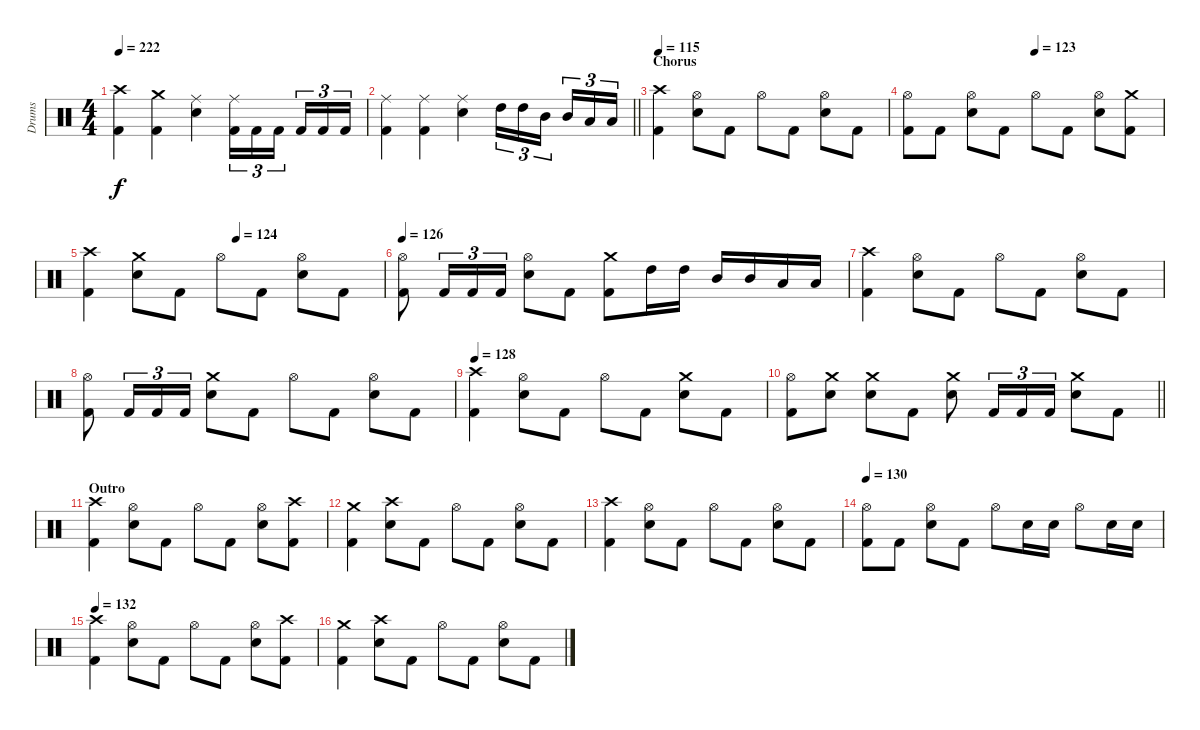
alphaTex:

\track ("Drums" "Drums") {instrument percussion}
\staff {score}
\articulation defaults
\ts (4 4)
\tempo 222
\clef neutral
\ks c
("Crash high (hit)" "Kick (hit) 2").4{dy f} ("Crash medium (hit)" "Kick (hit) 2").4 ("Ride (middle)" "Snare (hit) 2").4 ("Ride (middle)" "Kick (hit) 2").16{tu (3 2)} "Kick (hit) 2".16{tu (3 2)} "Kick (hit) 2".16{tu (3 2) beam splitsecondary} "Kick (hit) 2".16{tu (3 2)} "Kick (hit) 2".16{tu (3 2)} "Kick (hit) 2".16{tu (3 2)} |
\barLineRight lightlight
("Ride (middle)" "Kick (hit) 2").4 ("Ride (middle)" "Kick (hit) 2").4 ("Ride (middle)" "Snare (hit) 2").4 "High Tom (hit)".16{tu (3 2)} "High Tom (hit)".16{tu (3 2)} "Mid Tom (hit)".16{tu (3 2) beam splitsecondary} "Mid Tom (hit)".16{tu (3 2)} "Low Tom (hit)".16{tu (3 2)} "Low Tom (hit)".16{tu (3 2)} |
\section ("" "Chorus")
\tempo 115
("Crash high (hit)" "Kick (hit) 2").4 ("Hi-Hat (open)" "Snare (hit) 2").8 "Kick (hit) 2".8 "Hi-Hat (open)".8 "Kick (hit) 2".8 ("Hi-Hat (open)" "Snare (hit) 2").8 "Kick (hit) 2".8 |
\tempo (123 0.5)
("Hi-Hat (open)" "Kick (hit) 2").8 "Kick (hit) 2".8 ("Hi-Hat (open)" "Snare (hit) 2").8 "Kick (hit) 2".8 "Hi-Hat (open)".8 "Kick (hit) 2".8 ("Hi-Hat (open)" "Snare (hit) 2").8 ("Crash medium (hit)" "Kick (hit) 2").8 |
\tempo (124 0.5)
("Crash high (hit)" "Kick (hit) 2").4 ("Crash medium (hit)" "Snare (hit) 2").8 "Kick (hit) 2".8 "Hi-Hat (open)".8 "Kick (hit) 2".8 ("Hi-Hat (open)" "Snare (hit) 2").8 "Kick (hit) 2".8 |
\tempo 126
("Hi-Hat (open)" "Kick (hit) 2").8 "Kick (hit) 2".16{tu (3 2)} "Kick (hit) 2".16{tu (3 2)} "Kick (hit) 2".16{tu (3 2)} ("Hi-Hat (open)" "Snare (hit) 2").8 "Kick (hit) 2".8 ("Crash medium (hit)" "Kick (hit) 2").8 "High Tom (hit)".16 "High Tom (hit)".16 "Mid Tom (hit)".16 "Mid Tom (hit)".16 "Low Tom (hit)".16 "Low Tom (hit)".16 |
("Crash high (hit)" "Kick (hit) 2").4 ("Hi-Hat (open)" "Snare (hit) 2").8 "Kick (hit) 2".8 "Hi-Hat (open)".8 "Kick (hit) 2".8 ("Hi-Hat (open)" "Snare (hit) 2").8 "Kick (hit) 2".8 |
("Hi-Hat (open)" "Kick (hit) 2").8 "Kick (hit) 2".16{tu (3 2)} "Kick (hit) 2".16{tu (3 2)} "Kick (hit) 2".16{tu (3 2)} ("Crash medium (hit)" "Snare (hit) 2").8 "Kick (hit) 2".8 "Hi-Hat (open)".8 "Kick (hit) 2".8 ("Hi-Hat (open)" "Snare (hit) 2").8 "Kick (hit) 2".8 |
\tempo 128
("Crash high (hit)" "Kick (hit) 2").4 ("Hi-Hat (open)" "Snare (hit) 2").8 "Kick (hit) 2".8 "Hi-Hat (open)".8 "Kick (hit) 2".8 ("Crash medium (hit)" "Snare (hit) 2").8 "Kick (hit) 2".8 |
\barLineRight lightlight
("Hi-Hat (open)" "Kick (hit) 2").8 ("Crash medium (hit)" "Snare (hit) 2").8 ("Crash medium (hit)" "Snare (hit) 2").8 "Kick (hit) 2".8 ("Crash medium (hit)" "Snare (hit) 2").8 "Kick (hit) 2".16{tu (3 2)} "Kick (hit) 2".16{tu (3 2)} "Kick (hit) 2".16{tu (3 2)} ("Crash medium (hit)" "Snare (hit) 2").8 "Kick (hit) 2".8 |
\section ("" "Outro")
("Crash high (hit)" "Kick (hit) 2").4 ("Hi-Hat (open)" "Snare (hit) 2").8 "Kick (hit) 2".8 "Hi-Hat (open)".8 "Kick (hit) 2".8 ("Hi-Hat (open)" "Snare (hit) 2").8 ("Crash high (hit)" "Kick (hit) 2").8 |
("Crash medium (hit)" "Kick (hit) 2").4 ("Crash high (hit)" "Snare (hit) 2").8 "Kick (hit) 2".8 "Hi-Hat (open)".8 "Kick (hit) 2".8 ("Hi-Hat (open)" "Snare (hit) 2").8 "Kick (hit) 2".8 |
("Crash high (hit)" "Kick (hit) 2").4 ("Hi-Hat (open)" "Snare (hit) 2").8 "Kick (hit) 2".8 "Hi-Hat (open)".8 "Kick (hit) 2".8 ("Hi-Hat (open)" "Snare (hit) 2").8 "Kick (hit) 2".8 |
\tempo 130
("Hi-Hat (open)" "Kick (hit) 2").8 "Kick (hit) 2".8 ("Hi-Hat (open)" "Snare (hit) 2").8 "Kick (hit) 2".8 "Hi-Hat (open)".8 "Snare (hit) 2".16 "Snare (hit) 2".16 "Hi-Hat (open)".8 "Snare (hit) 2".16 "Snare (hit) 2".16 |
\tempo 132
("Crash high (hit)" "Kick (hit) 2").4 ("Hi-Hat (open)" "Snare (hit) 2").8 "Kick (hit) 2".8 "Hi-Hat (open)".8 "Kick (hit) 2".8 ("Hi-Hat (open)" "Snare (hit) 2").8 ("Crash high (hit)" "Kick (hit) 2").8 |
("Crash medium (hit)" "Kick (hit) 2").4 ("Crash high (hit)" "Snare (hit) 2").8 "Kick (hit) 2".8 "Hi-Hat (open)".8 "Kick (hit) 2".8 ("Hi-Hat (open)" "Snare (hit) 2").8 "Kick (hit) 2".8
